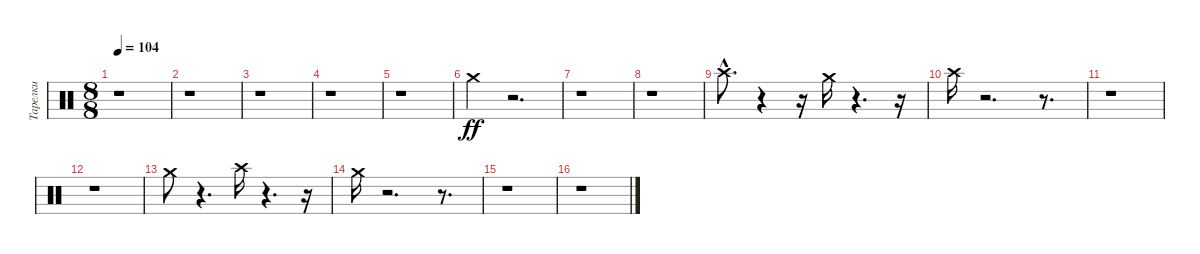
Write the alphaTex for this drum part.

\track ("Тарелки" "Тарелки") {instrument percussion}
\staff {score}
\articulation defaults
\ts (8 8)
\tempo 104
\clef neutral
\ks c
r.1{dy ff} |
r.1 |
r.1 |
r.1 |
r.1 |
"Crash medium (hit)".4 r.2{d} |
r.1 |
r.1 |
"Crash high (hit)"{hac}.8{d} r.4 r.16 "Crash medium (hit)".16 r.4{d} r.16 |
"Crash high (hit)".16 r.2{d} r.8{d} |
r.1 |
r.1 |
"Crash medium (hit)".8 r.4{d} "Crash high (hit)".16 r.4{d} r.16 |
"Crash medium (hit)".16 r.2{d} r.8{d} |
r.1 |
r.1
